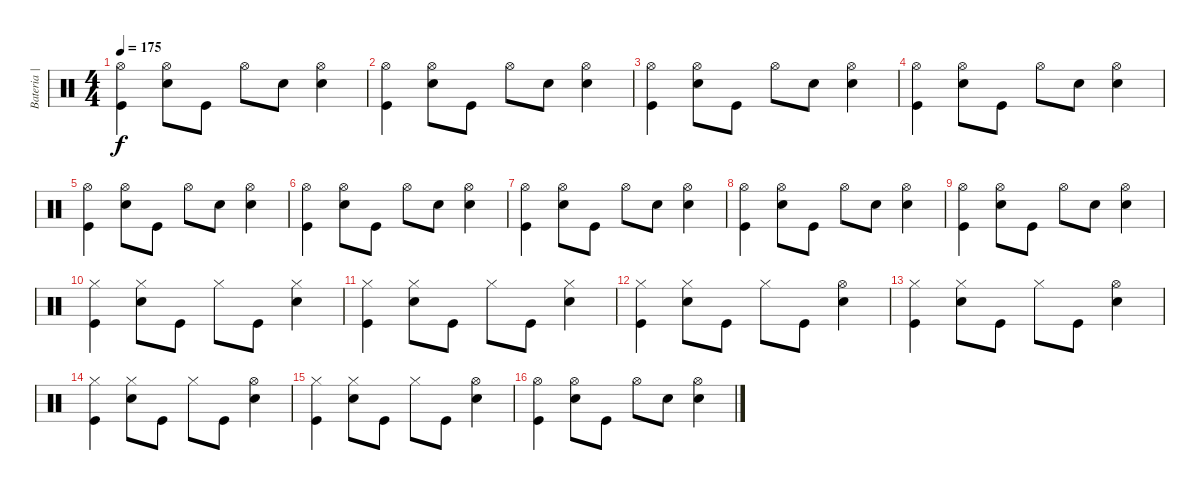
\track ("Bateria | Fabinho" "Bateria | ") {instrument percussion}
\staff {score}
\articulation defaults
\ts (4 4)
\tempo 175
\clef neutral
\ks c
("Hi-Hat (open)" "Kick (hit)").4{dy f} ("Hi-Hat (open)" "Snare (hit) 2").8 "Kick (hit)".8 "Hi-Hat (open)".8 "Snare (hit) 2".8 ("Hi-Hat (open)" "Snare (hit) 2").4 |
("Hi-Hat (open)" "Kick (hit)").4 ("Hi-Hat (open)" "Snare (hit) 2").8 "Kick (hit)".8 "Hi-Hat (open)".8 "Snare (hit) 2".8 ("Hi-Hat (open)" "Snare (hit) 2").4 |
("Hi-Hat (open)" "Kick (hit)").4 ("Hi-Hat (open)" "Snare (hit) 2").8 "Kick (hit)".8 "Hi-Hat (open)".8 "Snare (hit) 2".8 ("Hi-Hat (open)" "Snare (hit) 2").4 |
("Hi-Hat (open)" "Kick (hit)").4 ("Hi-Hat (open)" "Snare (hit) 2").8 "Kick (hit)".8 "Hi-Hat (open)".8 "Snare (hit) 2".8 ("Hi-Hat (open)" "Snare (hit) 2").4 |
("Hi-Hat (open)" "Kick (hit)").4 ("Hi-Hat (open)" "Snare (hit) 2").8 "Kick (hit)".8 "Hi-Hat (open)".8 "Snare (hit) 2".8 ("Hi-Hat (open)" "Snare (hit) 2").4 |
("Hi-Hat (open)" "Kick (hit)").4 ("Hi-Hat (open)" "Snare (hit) 2").8 "Kick (hit)".8 "Hi-Hat (open)".8 "Snare (hit) 2".8 ("Hi-Hat (open)" "Snare (hit) 2").4 |
("Hi-Hat (open)" "Kick (hit)").4 ("Hi-Hat (open)" "Snare (hit) 2").8 "Kick (hit)".8 "Hi-Hat (open)".8 "Snare (hit) 2".8 ("Hi-Hat (open)" "Snare (hit) 2").4 |
("Hi-Hat (open)" "Kick (hit)").4 ("Hi-Hat (open)" "Snare (hit) 2").8 "Kick (hit)".8 "Hi-Hat (open)".8 "Snare (hit) 2".8 ("Hi-Hat (open)" "Snare (hit) 2").4 |
("Hi-Hat (open)" "Kick (hit)").4 ("Hi-Hat (open)" "Snare (hit) 2").8 "Kick (hit)".8 "Hi-Hat (open)".8 "Snare (hit) 2".8 ("Hi-Hat (open)" "Snare (hit) 2").4 |
("Hi-Hat (closed)" "Kick (hit)").4 ("Hi-Hat (closed)" "Snare (hit) 2").8 "Kick (hit)".8 "Hi-Hat (closed)".8 "Kick (hit)".8 ("Hi-Hat (closed)" "Snare (hit) 2").4 |
("Hi-Hat (closed)" "Kick (hit)").4 ("Hi-Hat (closed)" "Snare (hit) 2").8 "Kick (hit)".8 "Hi-Hat (closed)".8 "Kick (hit)".8 ("Hi-Hat (closed)" "Snare (hit) 2").4 |
("Hi-Hat (closed)" "Kick (hit)").4 ("Hi-Hat (closed)" "Snare (hit) 2").8 "Kick (hit)".8 "Hi-Hat (closed)".8 "Kick (hit)".8 ("Hi-Hat (open)" "Snare (hit) 2").4 |
("Hi-Hat (closed)" "Kick (hit)").4 ("Hi-Hat (closed)" "Snare (hit) 2").8 "Kick (hit)".8 "Hi-Hat (closed)".8 "Kick (hit)".8 ("Hi-Hat (open)" "Snare (hit) 2").4 |
("Hi-Hat (closed)" "Kick (hit)").4 ("Hi-Hat (closed)" "Snare (hit) 2").8 "Kick (hit)".8 "Hi-Hat (closed)".8 "Kick (hit)".8 ("Hi-Hat (open)" "Snare (hit) 2").4 |
("Hi-Hat (closed)" "Kick (hit)").4 ("Hi-Hat (closed)" "Snare (hit) 2").8 "Kick (hit)".8 "Hi-Hat (closed)".8 "Kick (hit)".8 ("Hi-Hat (open)" "Snare (hit) 2").4 |
("Hi-Hat (open)" "Kick (hit)").4 ("Hi-Hat (open)" "Snare (hit) 2").8 "Kick (hit)".8 "Hi-Hat (open)".8 "Snare (hit) 2".8 ("Hi-Hat (open)" "Snare (hit) 2").4
